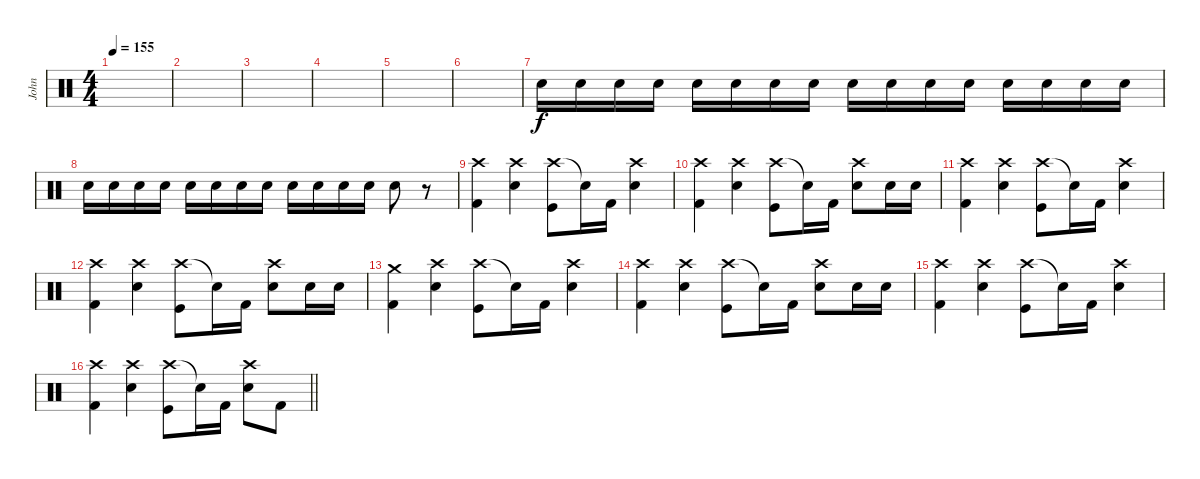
\track ("John" "John") {instrument percussion}
\staff {score}
\articulation defaults
\ts (4 4)
\tempo 155
\clef neutral
\ks c
|
|
|
|
|
|
"Snare (hit) 2".16{volume 13} "Snare (hit) 2".16 "Snare (hit) 2".16 "Snare (hit) 2".16 "Snare (hit) 2".16 "Snare (hit) 2".16 "Snare (hit) 2".16 "Snare (hit) 2".16 "Snare (hit) 2".16 "Snare (hit) 2".16 "Snare (hit) 2".16 "Snare (hit) 2".16 "Snare (hit) 2".16 "Snare (hit) 2".16 "Snare (hit) 2".16 "Snare (hit) 2".16 |
"Snare (hit) 2".16 "Snare (hit) 2".16 "Snare (hit) 2".16 "Snare (hit) 2".16 "Snare (hit) 2".16 "Snare (hit) 2".16 "Snare (hit) 2".16 "Snare (hit) 2".16 "Snare (hit) 2".16 "Snare (hit) 2".16 "Snare (hit) 2".16 "Snare (hit) 2".16 "Snare (hit) 2".8 r.8 |
("Crash high (hit)" "Kick (hit) 2").4 ("Crash high (hit)" "Snare (hit) 2").4 ("Crash high (hit)" "Kick (hit)").8 "Snare (hit)"{t}.16 "Kick (hit) 2".16 ("Crash high (hit)" "Snare (hit) 2").4 |
("Crash high (hit)" "Kick (hit) 2").4 ("Crash high (hit)" "Snare (hit) 2").4 ("Crash high (hit)" "Kick (hit)").8 "Snare (hit)"{t}.16 "Kick (hit) 2".16 ("Crash high (hit)" "Snare (hit) 2").8 "Snare (hit) 2".16 "Snare (hit) 2".16 |
("Crash high (hit)" "Kick (hit) 2").4 ("Crash high (hit)" "Snare (hit) 2").4 ("Crash high (hit)" "Kick (hit)").8 "Snare (hit)"{t}.16 "Kick (hit) 2".16 ("Crash high (hit)" "Snare (hit) 2").4 |
("Crash high (hit)" "Kick (hit) 2").4 ("Crash high (hit)" "Snare (hit) 2").4 ("Crash high (hit)" "Kick (hit)").8 "Snare (hit)"{t}.16 "Kick (hit) 2".16 ("Crash high (hit)" "Snare (hit) 2").8 "Snare (hit) 2".16 "Snare (hit) 2".16 |
("Crash medium (hit)" "Kick (hit) 2").4 ("Crash high (hit)" "Snare (hit) 2").4 ("Crash high (hit)" "Kick (hit)").8 "Snare (hit)"{t}.16 "Kick (hit) 2".16 ("Crash high (hit)" "Snare (hit) 2").4 |
("Crash high (hit)" "Kick (hit) 2").4 ("Crash high (hit)" "Snare (hit) 2").4 ("Crash high (hit)" "Kick (hit)").8 "Snare (hit)"{t}.16 "Kick (hit) 2".16 ("Crash high (hit)" "Snare (hit) 2").8 "Snare (hit) 2".16 "Snare (hit) 2".16 |
("Crash high (hit)" "Kick (hit) 2").4 ("Crash high (hit)" "Snare (hit) 2").4 ("Crash high (hit)" "Kick (hit)").8 "Snare (hit)"{t}.16 "Kick (hit) 2".16 ("Crash high (hit)" "Snare (hit) 2").4 |
\barLineRight lightlight
("Crash high (hit)" "Kick (hit) 2").4 ("Crash high (hit)" "Snare (hit) 2").4 ("Crash high (hit)" "Kick (hit)").8 "Snare (hit)"{t}.16 "Kick (hit) 2".16 ("Crash high (hit)" "Snare (hit) 2").8 "Kick (hit) 2".8
